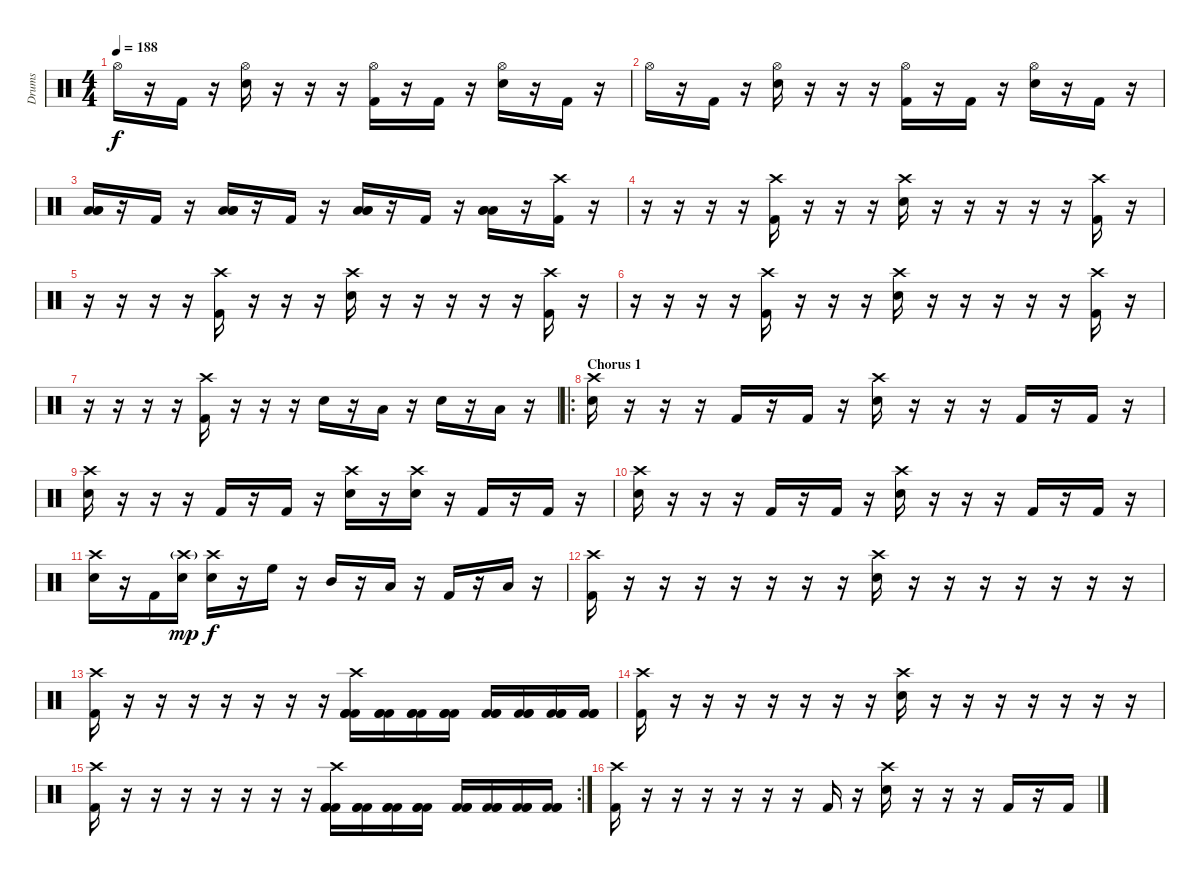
\track ("Drums" "Drums") {instrument percussion}
\staff {score}
\articulation defaults
\ts (4 4)
\tempo 188
\clef neutral
\ks c "Hi-Hat (open)".16{dy f}
r.16 "Kick (hit) 2".16 r.16 ("Hi-Hat (open)" "Electric Snare (hit)").16 r.16 r.16 r.16 ("Hi-Hat (open)" "Kick (hit) 2").16 r.16 "Kick (hit) 2".16 r.16 ("Hi-Hat (open)" "Electric Snare (hit)").16 r.16 "Kick (hit) 2".16 r.16 |
"Hi-Hat (open)".16 r.16 "Kick (hit) 2".16 r.16 ("Hi-Hat (open)" "Electric Snare (hit)").16 r.16 r.16 r.16 ("Hi-Hat (open)" "Kick (hit) 2").16 r.16 "Kick (hit) 2".16 r.16 ("Hi-Hat (open)" "Electric Snare (hit)").16 r.16 "Kick (hit) 2".16 r.16 |
("Low Floor Tom (hit)" "Low Floor Tom (hit)" "Low Floor Tom (hit)").16 r.16 "Kick (hit) 2".16 r.16 ("Low Floor Tom (hit)" "Low Floor Tom (hit)" "Low Floor Tom (hit)").16 r.16 "Kick (hit) 2".16 r.16 ("Low Floor Tom (hit)" "Low Floor Tom (hit)" "Low Floor Tom (hit)").16 r.16 "Kick (hit) 2".16 r.16 ("Low Floor Tom (hit)" "Low Floor Tom (hit)" "Low Floor Tom (hit)").16 r.16 ("Crash high (hit)" "Kick (hit) 2").16 r.16 |
r.16 r.16 r.16 r.16 ("Crash high (hit)" "Kick (hit) 2").16 r.16 r.16 r.16 ("Crash high (hit)" "Electric Snare (hit)").16 r.16 r.16 r.16 r.16 r.16 ("Crash high (hit)" "Kick (hit) 2").16 r.16 |
r.16 r.16 r.16 r.16 ("Crash high (hit)" "Kick (hit) 2").16 r.16 r.16 r.16 ("Crash high (hit)" "Electric Snare (hit)").16 r.16 r.16 r.16 r.16 r.16 ("Crash high (hit)" "Kick (hit) 2").16 r.16 |
r.16 r.16 r.16 r.16 ("Crash high (hit)" "Kick (hit) 2").16 r.16 r.16 r.16 ("Crash high (hit)" "Electric Snare (hit)").16 r.16 r.16 r.16 r.16 r.16 ("Crash high (hit)" "Kick (hit) 2").16 r.16 |
r.16 r.16 r.16 r.16 ("Crash high (hit)" "Kick (hit) 2").16 r.16 r.16 r.16 "Electric Snare (hit)".16 r.16 "Low Floor Tom (hit)".16 r.16 "Electric Snare (hit)".16 r.16 "Low Floor Tom (hit)".16 r.16 |
\ro
\section ("" "Chorus 1")
("Crash high (hit)" "Electric Snare (hit)").16 r.16 r.16 r.16 "Kick (hit) 2".16 r.16 "Kick (hit) 2".16 r.16 ("Crash high (hit)" "Electric Snare (hit)").16 r.16 r.16 r.16 "Kick (hit) 2".16 r.16 "Kick (hit) 2".16 r.16 |
("Crash high (hit)" "Electric Snare (hit)").16 r.16 r.16 r.16 "Kick (hit) 2".16 r.16 "Kick (hit) 2".16 r.16 ("Crash high (hit)" "Electric Snare (hit)").16 r.16 ("Crash high (hit)" "Electric Snare (hit)").16 r.16 "Kick (hit) 2".16 r.16 "Kick (hit) 2".16 r.16 |
("Crash high (hit)" "Electric Snare (hit)").16 r.16 r.16 r.16 "Kick (hit) 2".16 r.16 "Kick (hit) 2".16 r.16 ("Crash high (hit)" "Electric Snare (hit)").16 r.16 r.16 r.16 "Kick (hit) 2".16 r.16 "Kick (hit) 2".16 r.16 |
("Crash high (hit)" "Electric Snare (hit)").16 r.16 "Kick (hit) 2".16 ("Crash high (hit)"{g} "Electric Snare (hit)").16{dy mp} ("Crash high (hit)" "Electric Snare (hit)").16{dy f} r.16 "High Floor Tom (hit)".16 r.16 "Mid Tom (hit)".16 r.16 "Low Tom (hit)".16 r.16 "Kick (hit) 2".16 r.16 "Low Tom (hit)".16 r.16 |
("Crash high (hit)" "Kick (hit) 2").16 r.16 r.16 r.16 r.16 r.16 r.16 r.16 ("Crash high (hit)" "Electric Snare (hit)").16 r.16 r.16 r.16 r.16 r.16 r.16 r.16 |
("Crash high (hit)" "Kick (hit) 2").16 r.16 r.16 r.16 r.16 r.16 r.16 r.16 ("Crash high (hit)" "Kick (hit) 2" "Kick (hit) 2" "Kick (hit) 2").16 ("Kick (hit) 2" "Kick (hit) 2" "Kick (hit) 2").16 ("Kick (hit) 2" "Kick (hit) 2" "Kick (hit) 2").16 ("Kick (hit) 2" "Kick (hit) 2" "Kick (hit) 2").16 ("Kick (hit) 2" "Kick (hit) 2" "Kick (hit) 2").16 ("Kick (hit) 2" "Kick (hit) 2" "Kick (hit) 2").16 ("Kick (hit) 2" "Kick (hit) 2" "Kick (hit) 2").16 ("Kick (hit) 2" "Kick (hit) 2" "Kick (hit) 2").16 |
("Crash high (hit)" "Kick (hit) 2").16 r.16 r.16 r.16 r.16 r.16 r.16 r.16 ("Crash high (hit)" "Electric Snare (hit)").16 r.16 r.16 r.16 r.16 r.16 r.16 r.16 |
\rc 2
("Crash high (hit)" "Kick (hit) 2").16 r.16 r.16 r.16 r.16 r.16 r.16 r.16 ("Crash high (hit)" "Kick (hit) 2" "Kick (hit) 2" "Kick (hit) 2").16 ("Kick (hit) 2" "Kick (hit) 2" "Kick (hit) 2").16 ("Kick (hit) 2" "Kick (hit) 2" "Kick (hit) 2").16 ("Kick (hit) 2" "Kick (hit) 2" "Kick (hit) 2").16 ("Kick (hit) 2" "Kick (hit) 2" "Kick (hit) 2").16 ("Kick (hit) 2" "Kick (hit) 2" "Kick (hit) 2").16 ("Kick (hit) 2" "Kick (hit) 2" "Kick (hit) 2").16 ("Kick (hit) 2" "Kick (hit) 2" "Kick (hit) 2").16 |
("Crash high (hit)" "Kick (hit) 2").16 r.16 r.16 r.16 r.16 r.16 r.16 "Kick (hit) 2".16 r.16 ("Crash high (hit)" "Electric Snare (hit)").16 r.16 r.16 r.16 "Kick (hit) 2".16 r.16 "Kick (hit) 2".16
